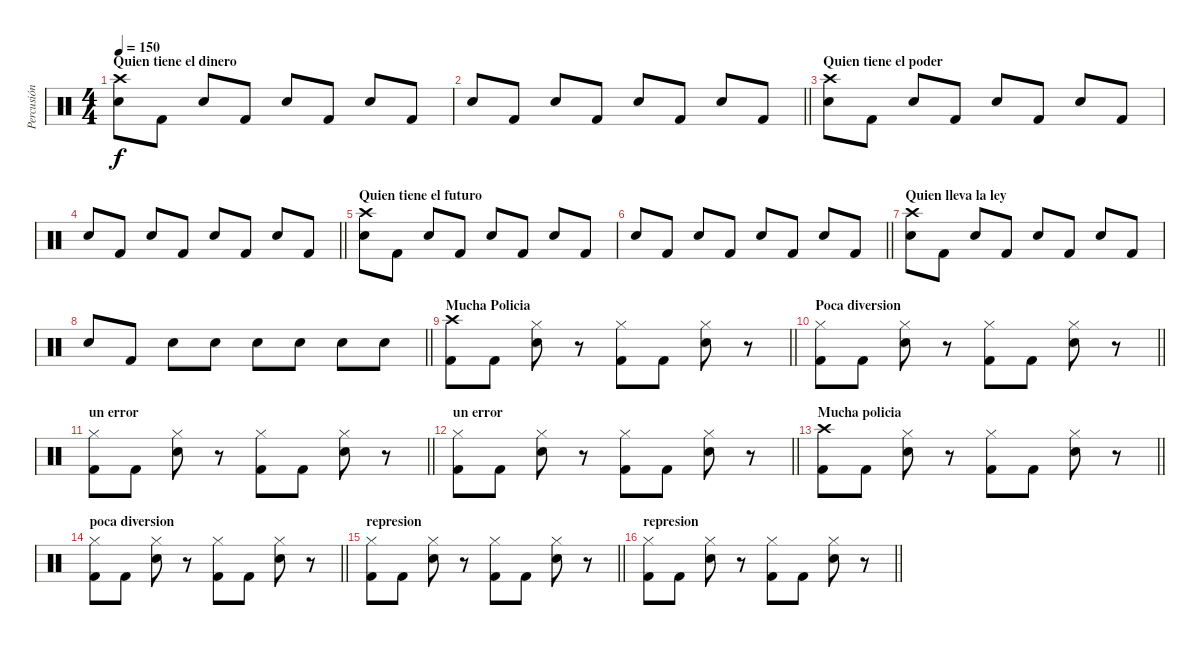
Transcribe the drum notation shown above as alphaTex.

\track ("Percusión" "Percusión") {instrument percussion}
\staff {score}
\articulation defaults
\ts (4 4)
\section ("" "Quien tiene el dinero")
\tempo 150
\clef neutral
\ks c
("Crash high (hit)" "Electric Snare (hit)").8{dy f} "Kick (hit) 2".8 "Electric Snare (hit)".8 "Kick (hit) 2".8 "Electric Snare (hit)".8 "Kick (hit) 2".8 "Electric Snare (hit)".8 "Kick (hit) 2".8 |
\barLineRight lightlight "Electric Snare (hit)".8 "Kick (hit) 2".8 "Electric Snare (hit)".8 "Kick (hit) 2".8 "Electric Snare (hit)".8 "Kick (hit) 2".8 "Electric Snare (hit)".8 "Kick (hit) 2".8
|
\section ("" "Quien tiene el poder")
("Crash high (hit)" "Electric Snare (hit)").8 "Kick (hit) 2".8 "Electric Snare (hit)".8 "Kick (hit) 2".8 "Electric Snare (hit)".8 "Kick (hit) 2".8 "Electric Snare (hit)".8 "Kick (hit) 2".8 |
\barLineRight lightlight "Electric Snare (hit)".8 "Kick (hit) 2".8 "Electric Snare (hit)".8 "Kick (hit) 2".8 "Electric Snare (hit)".8 "Kick (hit) 2".8 "Electric Snare (hit)".8 "Kick (hit) 2".8
|
\section ("" "Quien tiene el futuro")
("Crash high (hit)" "Electric Snare (hit)").8 "Kick (hit) 2".8 "Electric Snare (hit)".8 "Kick (hit) 2".8 "Electric Snare (hit)".8 "Kick (hit) 2".8 "Electric Snare (hit)".8 "Kick (hit) 2".8 |
\barLineRight lightlight "Electric Snare (hit)".8 "Kick (hit) 2".8 "Electric Snare (hit)".8 "Kick (hit) 2".8 "Electric Snare (hit)".8 "Kick (hit) 2".8 "Electric Snare (hit)".8 "Kick (hit) 2".8
|
\section ("" "Quien lleva la ley")
("Crash high (hit)" "Electric Snare (hit)").8 "Kick (hit) 2".8 "Electric Snare (hit)".8 "Kick (hit) 2".8 "Electric Snare (hit)".8 "Kick (hit) 2".8 "Electric Snare (hit)".8 "Kick (hit) 2".8 |
\barLineRight lightlight "Electric Snare (hit)".8 "Kick (hit) 2".8 "Electric Snare (hit)".8 "Electric Snare (hit)".8 "Electric Snare (hit)".8 "Electric Snare (hit)".8 "Electric Snare (hit)".8 "Electric Snare (hit)".8
|
\section ("" "Mucha Policia")
\barLineRight lightlight
("Crash high (hit)" "Kick (hit) 2").8 "Kick (hit) 2".8 ("Hi-Hat (closed)" "Electric Snare (hit)").8 r.8 ("Hi-Hat (closed)" "Kick (hit) 2").8 "Kick (hit) 2".8 ("Hi-Hat (closed)" "Electric Snare (hit)").8 r.8 |
\section ("" "Poca diversion")
\barLineRight lightlight
("Hi-Hat (closed)" "Kick (hit) 2").8 "Kick (hit) 2".8 ("Hi-Hat (closed)" "Electric Snare (hit)").8 r.8 ("Hi-Hat (closed)" "Kick (hit) 2").8 "Kick (hit) 2".8 ("Hi-Hat (closed)" "Electric Snare (hit)").8 r.8 |
\section ("" "un error")
\barLineRight lightlight
("Hi-Hat (closed)" "Kick (hit) 2").8 "Kick (hit) 2".8 ("Hi-Hat (closed)" "Electric Snare (hit)").8 r.8 ("Hi-Hat (closed)" "Kick (hit) 2").8 "Kick (hit) 2".8 ("Hi-Hat (closed)" "Electric Snare (hit)").8 r.8 |
\section ("" "un error")
\barLineRight lightlight
("Hi-Hat (closed)" "Kick (hit) 2").8 "Kick (hit) 2".8 ("Hi-Hat (closed)" "Electric Snare (hit)").8 r.8 ("Hi-Hat (closed)" "Kick (hit) 2").8 "Kick (hit) 2".8 ("Hi-Hat (closed)" "Electric Snare (hit)").8 r.8 |
\section ("" "Mucha policia")
\barLineRight lightlight
("Crash high (hit)" "Kick (hit) 2").8 "Kick (hit) 2".8 ("Hi-Hat (closed)" "Electric Snare (hit)").8 r.8 ("Hi-Hat (closed)" "Kick (hit) 2").8 "Kick (hit) 2".8 ("Hi-Hat (closed)" "Electric Snare (hit)").8 r.8 |
\section ("" "poca diversion")
\barLineRight lightlight
("Hi-Hat (closed)" "Kick (hit) 2").8 "Kick (hit) 2".8 ("Hi-Hat (closed)" "Electric Snare (hit)").8 r.8 ("Hi-Hat (closed)" "Kick (hit) 2").8 "Kick (hit) 2".8 ("Hi-Hat (closed)" "Electric Snare (hit)").8 r.8 |
\section ("" "represion")
\barLineRight lightlight
("Hi-Hat (closed)" "Kick (hit) 2").8 "Kick (hit) 2".8 ("Hi-Hat (closed)" "Electric Snare (hit)").8 r.8 ("Hi-Hat (closed)" "Kick (hit) 2").8 "Kick (hit) 2".8 ("Hi-Hat (closed)" "Electric Snare (hit)").8 r.8 |
\section ("" "represion")
\barLineRight lightlight
("Hi-Hat (closed)" "Kick (hit) 2").8 "Kick (hit) 2".8 ("Hi-Hat (closed)" "Electric Snare (hit)").8 r.8 ("Hi-Hat (closed)" "Kick (hit) 2").8 "Kick (hit) 2".8 ("Hi-Hat (closed)" "Electric Snare (hit)").8 r.8
